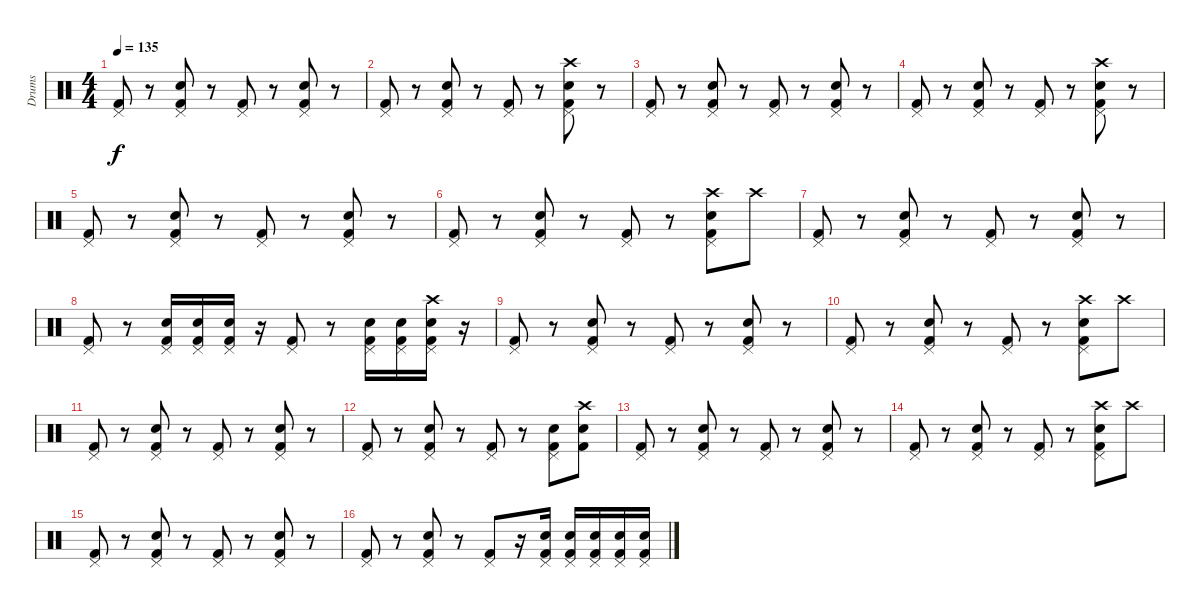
\track ("Drums" "Drums") {instrument percussion}
\staff {score}
\articulation defaults
\ts (4 4)
\tempo 135
\clef neutral
\ks c
("Pedal Hi-Hat (hit)" "Kick (hit) 2").8{dy f} r.8 ("Pedal Hi-Hat (hit)" "Snare (hit) 2" "Kick (hit) 2").8 r.8 ("Pedal Hi-Hat (hit)" "Kick (hit) 2").8 r.8 ("Pedal Hi-Hat (hit)" "Snare (hit) 2" "Kick (hit) 2").8 r.8 |
("Pedal Hi-Hat (hit)" "Kick (hit) 2").8 r.8 ("Pedal Hi-Hat (hit)" "Snare (hit) 2" "Kick (hit) 2").8 r.8 ("Pedal Hi-Hat (hit)" "Kick (hit) 2").8 r.8 ("Crash high (hit)" "Pedal Hi-Hat (hit)" "Snare (hit) 2" "Kick (hit) 2").8 r.8 |
("Pedal Hi-Hat (hit)" "Kick (hit) 2").8 r.8 ("Pedal Hi-Hat (hit)" "Snare (hit) 2" "Kick (hit) 2").8 r.8 ("Pedal Hi-Hat (hit)" "Kick (hit) 2").8 r.8 ("Pedal Hi-Hat (hit)" "Snare (hit) 2" "Kick (hit) 2").8 r.8 |
("Pedal Hi-Hat (hit)" "Kick (hit) 2").8 r.8 ("Pedal Hi-Hat (hit)" "Snare (hit) 2" "Kick (hit) 2").8 r.8 ("Pedal Hi-Hat (hit)" "Kick (hit) 2").8 r.8 ("Crash high (hit)" "Pedal Hi-Hat (hit)" "Snare (hit) 2" "Kick (hit) 2").8 r.8 |
("Pedal Hi-Hat (hit)" "Kick (hit) 2").8 r.8 ("Pedal Hi-Hat (hit)" "Snare (hit) 2" "Kick (hit) 2").8 r.8 ("Pedal Hi-Hat (hit)" "Kick (hit) 2").8 r.8 ("Pedal Hi-Hat (hit)" "Snare (hit) 2" "Kick (hit) 2").8 r.8 |
("Pedal Hi-Hat (hit)" "Kick (hit) 2").8 r.8 ("Pedal Hi-Hat (hit)" "Snare (hit) 2" "Kick (hit) 2").8 r.8 ("Pedal Hi-Hat (hit)" "Kick (hit) 2").8 r.8 ("Crash high (hit)" "Pedal Hi-Hat (hit)" "Snare (hit) 2" "Kick (hit) 2").8 "Crash high (hit)".8 |
("Pedal Hi-Hat (hit)" "Kick (hit) 2").8 r.8 ("Pedal Hi-Hat (hit)" "Snare (hit) 2" "Kick (hit) 2").8 r.8 ("Pedal Hi-Hat (hit)" "Kick (hit) 2").8 r.8 ("Pedal Hi-Hat (hit)" "Snare (hit) 2" "Kick (hit) 2").8 r.8 |
("Pedal Hi-Hat (hit)" "Kick (hit) 2").8 r.8 ("Pedal Hi-Hat (hit)" "Snare (hit) 2" "Kick (hit) 2").16 ("Pedal Hi-Hat (hit)" "Snare (hit) 2" "Kick (hit) 2").16 ("Pedal Hi-Hat (hit)" "Snare (hit) 2" "Kick (hit) 2").16 r.16 ("Pedal Hi-Hat (hit)" "Kick (hit) 2").8 r.8 ("Pedal Hi-Hat (hit)" "Snare (hit) 2" "Kick (hit) 2").16 ("Pedal Hi-Hat (hit)" "Snare (hit) 2" "Kick (hit) 2").16 ("Crash high (hit)" "Pedal Hi-Hat (hit)" "Snare (hit) 2" "Kick (hit) 2").16 r.16 |
("Pedal Hi-Hat (hit)" "Kick (hit) 2").8 r.8 ("Pedal Hi-Hat (hit)" "Snare (hit) 2" "Kick (hit) 2").8 r.8 ("Pedal Hi-Hat (hit)" "Kick (hit) 2").8 r.8 ("Pedal Hi-Hat (hit)" "Snare (hit) 2" "Kick (hit) 2").8 r.8 |
("Pedal Hi-Hat (hit)" "Kick (hit) 2").8 r.8 ("Pedal Hi-Hat (hit)" "Snare (hit) 2" "Kick (hit) 2").8 r.8 ("Pedal Hi-Hat (hit)" "Kick (hit) 2").8 r.8 ("Crash high (hit)" "Pedal Hi-Hat (hit)" "Snare (hit) 2" "Kick (hit) 2").8 "Crash high (hit)".8 |
("Pedal Hi-Hat (hit)" "Kick (hit) 2").8 r.8 ("Pedal Hi-Hat (hit)" "Snare (hit) 2" "Kick (hit) 2").8 r.8 ("Pedal Hi-Hat (hit)" "Kick (hit) 2").8 r.8 ("Pedal Hi-Hat (hit)" "Snare (hit) 2" "Kick (hit) 2").8 r.8 |
("Pedal Hi-Hat (hit)" "Kick (hit) 2").8 r.8 ("Pedal Hi-Hat (hit)" "Snare (hit) 2" "Kick (hit) 2").8 r.8 ("Pedal Hi-Hat (hit)" "Kick (hit) 2").8 r.8 ("Pedal Hi-Hat (hit)" "Snare (hit) 2" "Kick (hit) 2").8 ("Crash high (hit)" "Snare (hit) 2" "Kick (hit) 2").8 |
("Pedal Hi-Hat (hit)" "Kick (hit) 2").8 r.8 ("Pedal Hi-Hat (hit)" "Snare (hit) 2" "Kick (hit) 2").8 r.8 ("Pedal Hi-Hat (hit)" "Kick (hit) 2").8 r.8 ("Pedal Hi-Hat (hit)" "Snare (hit) 2" "Kick (hit) 2").8 r.8 |
("Pedal Hi-Hat (hit)" "Kick (hit) 2").8 r.8 ("Pedal Hi-Hat (hit)" "Snare (hit) 2" "Kick (hit) 2").8 r.8 ("Pedal Hi-Hat (hit)" "Kick (hit) 2").8 r.8 ("Crash high (hit)" "Pedal Hi-Hat (hit)" "Snare (hit) 2" "Kick (hit) 2").8 "Crash high (hit)".8 |
("Pedal Hi-Hat (hit)" "Kick (hit) 2").8 r.8 ("Pedal Hi-Hat (hit)" "Snare (hit) 2" "Kick (hit) 2").8 r.8 ("Pedal Hi-Hat (hit)" "Kick (hit) 2").8 r.8 ("Pedal Hi-Hat (hit)" "Snare (hit) 2" "Kick (hit) 2").8 r.8 |
("Pedal Hi-Hat (hit)" "Kick (hit) 2").8 r.8 ("Pedal Hi-Hat (hit)" "Snare (hit) 2" "Kick (hit) 2").8 r.8 ("Pedal Hi-Hat (hit)" "Kick (hit) 2").8 r.16 ("Pedal Hi-Hat (hit)" "Snare (hit) 2" "Kick (hit) 2").16 ("Pedal Hi-Hat (hit)" "Snare (hit) 2" "Kick (hit) 2").16 ("Pedal Hi-Hat (hit)" "Snare (hit) 2" "Kick (hit) 2").16 ("Pedal Hi-Hat (hit)" "Snare (hit) 2" "Kick (hit) 2").16 ("Pedal Hi-Hat (hit)" "Snare (hit) 2" "Kick (hit) 2").16
